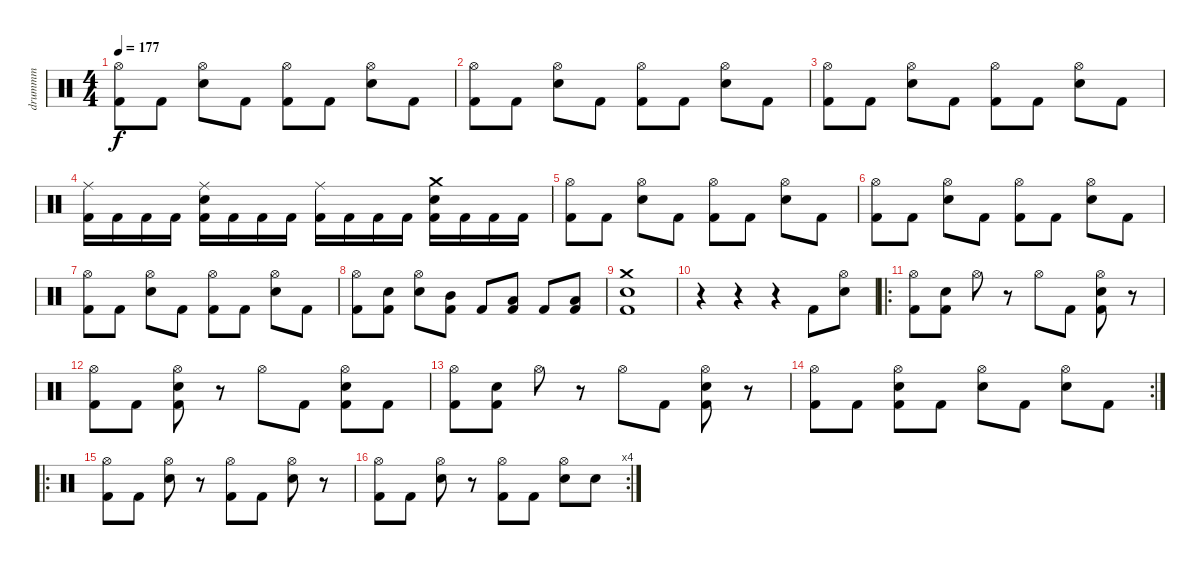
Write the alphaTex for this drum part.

\track ("drummm" "drummm") {instrument percussion}
\staff {score}
\articulation defaults
\ts (4 4)
\tempo 177
\clef neutral
\ks c
("Hi-Hat (open)" "Kick (hit) 2").8{dy f} "Kick (hit) 2".8 ("Hi-Hat (open)" "Snare (hit) 2").8 "Kick (hit) 2".8 ("Hi-Hat (open)" "Kick (hit) 2").8 "Kick (hit) 2".8 ("Hi-Hat (open)" "Snare (hit) 2").8 "Kick (hit) 2".8 |
("Hi-Hat (open)" "Kick (hit) 2").8 "Kick (hit) 2".8 ("Hi-Hat (open)" "Snare (hit) 2").8 "Kick (hit) 2".8 ("Hi-Hat (open)" "Kick (hit) 2").8 "Kick (hit) 2".8 ("Hi-Hat (open)" "Snare (hit) 2").8 "Kick (hit) 2".8 |
("Hi-Hat (open)" "Kick (hit) 2").8 "Kick (hit) 2".8 ("Hi-Hat (open)" "Snare (hit) 2").8 "Kick (hit) 2".8 ("Hi-Hat (open)" "Kick (hit) 2").8 "Kick (hit) 2".8 ("Hi-Hat (open)" "Snare (hit) 2").8 "Kick (hit) 2".8 |
("Ride (middle)" "Kick (hit) 2").16 "Kick (hit) 2".16 "Kick (hit) 2".16 "Kick (hit) 2".16 ("Ride (middle)" "Snare (hit) 2" "Kick (hit) 2").16 "Kick (hit) 2".16 "Kick (hit) 2".16 "Kick (hit) 2".16 ("Ride (middle)" "Kick (hit) 2").16 "Kick (hit) 2".16 "Kick (hit) 2".16 "Kick (hit) 2".16 ("Crash medium (hit)" "Snare (hit) 2" "Kick (hit) 2").16 "Kick (hit) 2".16 "Kick (hit) 2".16 "Kick (hit) 2".16 |
("Hi-Hat (open)" "Kick (hit) 2").8 "Kick (hit) 2".8 ("Hi-Hat (open)" "Snare (hit) 2").8 "Kick (hit) 2".8 ("Hi-Hat (open)" "Kick (hit) 2").8 "Kick (hit) 2".8 ("Hi-Hat (open)" "Snare (hit) 2").8 "Kick (hit) 2".8 |
("Hi-Hat (open)" "Kick (hit) 2").8 "Kick (hit) 2".8 ("Hi-Hat (open)" "Snare (hit) 2").8 "Kick (hit) 2".8 ("Hi-Hat (open)" "Kick (hit) 2").8 "Kick (hit) 2".8 ("Hi-Hat (open)" "Snare (hit) 2").8 "Kick (hit) 2".8 |
("Hi-Hat (open)" "Kick (hit) 2").8 "Kick (hit) 2".8 ("Hi-Hat (open)" "Snare (hit) 2").8 "Kick (hit) 2".8 ("Hi-Hat (open)" "Kick (hit) 2").8 "Kick (hit) 2".8 ("Hi-Hat (open)" "Snare (hit) 2").8 "Kick (hit) 2".8 |
("Hi-Hat (open)" "Kick (hit) 2").8 ("Snare (hit) 2" "Kick (hit) 2").8 ("Hi-Hat (open)" "Snare (hit) 2").8 ("Mid Tom (hit)" "Kick (hit) 2").8 "Kick (hit) 2".8 ("Low Tom (hit)" "Kick (hit) 2").8 "Kick (hit) 2".8 ("Low Floor Tom (hit)" "Kick (hit) 2").8 |
("Crash medium (hit)" "Snare (hit) 2" "Kick (hit) 2").1 |
r.4 r.4 r.4 "Kick (hit) 2".8 ("Hi-Hat (open)" "Snare (hit) 2").8 |
\ro
("Hi-Hat (open)" "Kick (hit) 2").8 ("Snare (hit) 2" "Kick (hit) 2").8 "Hi-Hat (open)".8 r.8 "Hi-Hat (open)".8 "Kick (hit) 2".8 ("Hi-Hat (open)" "Snare (hit) 2" "Kick (hit) 2").8 r.8 |
("Hi-Hat (open)" "Kick (hit) 2").8 "Kick (hit) 2".8 ("Hi-Hat (open)" "Snare (hit) 2" "Kick (hit) 2").8 r.8 "Hi-Hat (open)".8 "Kick (hit) 2".8 ("Hi-Hat (open)" "Snare (hit) 2" "Kick (hit) 2").8 "Kick (hit) 2".8 |
("Hi-Hat (open)" "Kick (hit) 2").8 ("Snare (hit) 2" "Kick (hit) 2").8 "Hi-Hat (open)".8 r.8 "Hi-Hat (open)".8 "Kick (hit) 2".8 ("Hi-Hat (open)" "Snare (hit) 2" "Kick (hit) 2").8 r.8 |
\rc 2
("Hi-Hat (open)" "Kick (hit) 2").8 "Kick (hit) 2".8 ("Hi-Hat (open)" "Snare (hit) 2" "Kick (hit) 2").8 "Kick (hit) 2".8 ("Hi-Hat (open)" "Snare (hit) 2").8 "Kick (hit) 2".8 ("Hi-Hat (open)" "Snare (hit) 2").8 "Kick (hit) 2".8 |
\ro
("Hi-Hat (open)" "Kick (hit) 2").8 "Kick (hit) 2".8 ("Hi-Hat (open)" "Snare (hit) 2").8 r.8 ("Hi-Hat (open)" "Kick (hit) 2").8 "Kick (hit) 2".8 ("Hi-Hat (open)" "Snare (hit) 2").8 r.8 |
\rc 4
("Hi-Hat (open)" "Kick (hit) 2").8 "Kick (hit) 2".8 ("Hi-Hat (open)" "Snare (hit) 2").8 r.8 ("Hi-Hat (open)" "Kick (hit) 2").8 "Kick (hit) 2".8 ("Hi-Hat (open)" "Snare (hit) 2").8 "Snare (hit) 2".8
